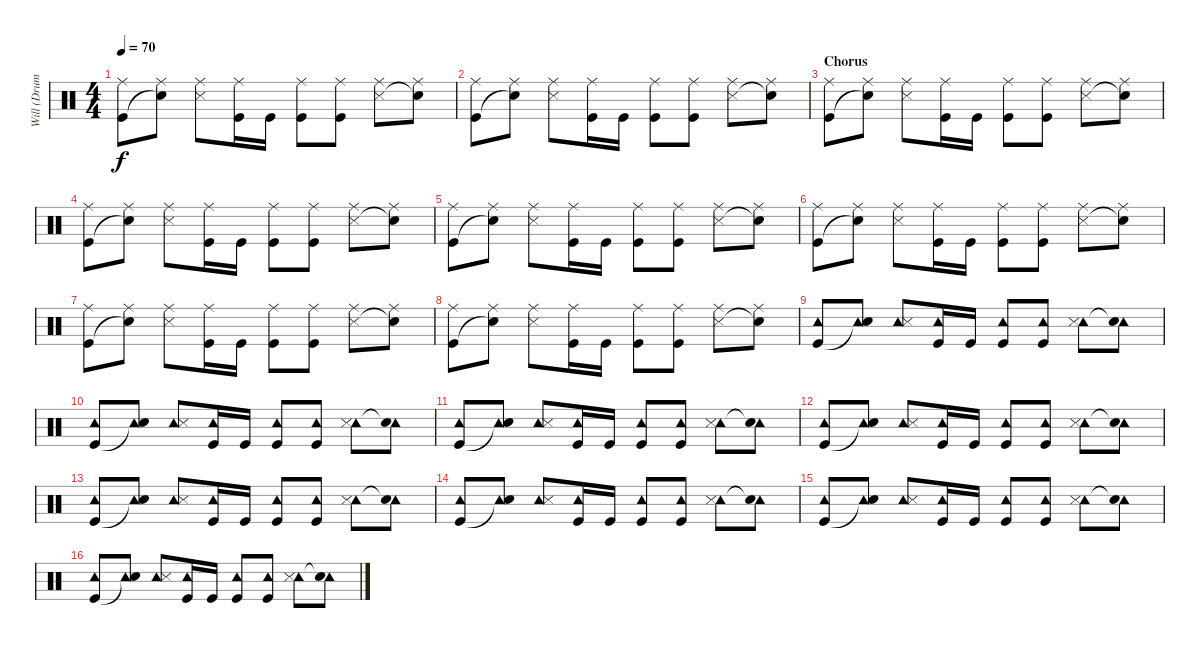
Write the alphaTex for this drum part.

\track ("Will (Drums)" "Will (Drum") {instrument percussion}
\staff {score}
\articulation defaults
\ts (4 4)
\tempo 70
\clef neutral
\ks c
("Ride (middle)" "Kick (hit)").8{dy f} ("Ride (middle)" "Snare (hit)"{t}).8 ("Ride (middle)" "Snare (side stick) 3").8 ("Ride (middle)" "Kick (hit)").16 "Kick (hit)".16 ("Ride (middle)" "Kick (hit)").8 ("Ride (middle)" "Kick (hit)").8 ("Ride (middle)" "Snare (side stick) 3").8 ("Ride (middle)" "Snare (hit)"{t}).8 |
("Ride (middle)" "Kick (hit)").8 ("Ride (middle)" "Snare (hit)"{t}).8 ("Ride (middle)" "Snare (side stick) 3").8 ("Ride (middle)" "Kick (hit)").16 "Kick (hit)".16 ("Ride (middle)" "Kick (hit)").8 ("Ride (middle)" "Kick (hit)").8 ("Ride (middle)" "Snare (side stick) 3").8 ("Ride (middle)" "Snare (hit)"{t}).8 |
\section ("" "Chorus")
("Ride (middle)" "Kick (hit)").8 ("Ride (middle)" "Snare (hit)"{t}).8 ("Ride (middle)" "Snare (side stick) 3").8 ("Ride (middle)" "Kick (hit)").16 "Kick (hit)".16 ("Ride (middle)" "Kick (hit)").8 ("Ride (middle)" "Kick (hit)").8 ("Ride (middle)" "Snare (side stick) 3").8 ("Ride (middle)" "Snare (hit)"{t}).8 |
("Ride (middle)" "Kick (hit)").8 ("Ride (middle)" "Snare (hit)"{t}).8 ("Ride (middle)" "Snare (side stick) 3").8 ("Ride (middle)" "Kick (hit)").16 "Kick (hit)".16 ("Ride (middle)" "Kick (hit)").8 ("Ride (middle)" "Kick (hit)").8 ("Ride (middle)" "Snare (side stick) 3").8 ("Ride (middle)" "Snare (hit)"{t}).8 |
("Ride (middle)" "Kick (hit)").8 ("Ride (middle)" "Snare (hit)"{t}).8 ("Ride (middle)" "Snare (side stick) 3").8 ("Ride (middle)" "Kick (hit)").16 "Kick (hit)".16 ("Ride (middle)" "Kick (hit)").8 ("Ride (middle)" "Kick (hit)").8 ("Ride (middle)" "Snare (side stick) 3").8 ("Ride (middle)" "Snare (hit)"{t}).8 |
("Ride (middle)" "Kick (hit)").8 ("Ride (middle)" "Snare (hit)"{t}).8 ("Ride (middle)" "Snare (side stick) 3").8 ("Ride (middle)" "Kick (hit)").16 "Kick (hit)".16 ("Ride (middle)" "Kick (hit)").8 ("Ride (middle)" "Kick (hit)").8 ("Ride (middle)" "Snare (side stick) 3").8 ("Ride (middle)" "Snare (hit)"{t}).8 |
("Ride (middle)" "Kick (hit)").8 ("Ride (middle)" "Snare (hit)"{t}).8 ("Ride (middle)" "Snare (side stick) 3").8 ("Ride (middle)" "Kick (hit)").16 "Kick (hit)".16 ("Ride (middle)" "Kick (hit)").8 ("Ride (middle)" "Kick (hit)").8 ("Ride (middle)" "Snare (side stick) 3").8 ("Ride (middle)" "Snare (hit)"{t}).8 |
("Ride (middle)" "Kick (hit)").8 ("Ride (middle)" "Snare (hit)"{t}).8 ("Ride (middle)" "Snare (side stick) 3").8 ("Ride (middle)" "Kick (hit)").16 "Kick (hit)".16 ("Ride (middle)" "Kick (hit)").8 ("Ride (middle)" "Kick (hit)").8 ("Ride (middle)" "Snare (side stick) 3").8 ("Ride (middle)" "Snare (hit)"{t}).8 |
("Tambourine (hit)" "Kick (hit)").8 ("Tambourine (hit)" "Snare (hit)"{t}).8 ("Tambourine (hit)" "Snare (side stick) 3").8 ("Tambourine (hit)" "Kick (hit)").16 "Kick (hit)".16 ("Tambourine (hit)" "Kick (hit)").8 ("Tambourine (hit)" "Kick (hit)").8 ("Tambourine (hit)" "Snare (side stick) 3").8 ("Tambourine (hit)" "Snare (hit)"{t}).8 |
("Tambourine (hit)" "Kick (hit)").8 ("Tambourine (hit)" "Snare (hit)"{t}).8 ("Tambourine (hit)" "Snare (side stick) 3").8 ("Tambourine (hit)" "Kick (hit)").16 "Kick (hit)".16 ("Tambourine (hit)" "Kick (hit)").8 ("Tambourine (hit)" "Kick (hit)").8 ("Tambourine (hit)" "Snare (side stick) 3").8 ("Tambourine (hit)" "Snare (hit)"{t}).8 |
("Tambourine (hit)" "Kick (hit)").8 ("Tambourine (hit)" "Snare (hit)"{t}).8 ("Tambourine (hit)" "Snare (side stick) 3").8 ("Tambourine (hit)" "Kick (hit)").16 "Kick (hit)".16 ("Tambourine (hit)" "Kick (hit)").8 ("Tambourine (hit)" "Kick (hit)").8 ("Tambourine (hit)" "Snare (side stick) 3").8 ("Tambourine (hit)" "Snare (hit)"{t}).8 |
("Tambourine (hit)" "Kick (hit)").8 ("Tambourine (hit)" "Snare (hit)"{t}).8 ("Tambourine (hit)" "Snare (side stick) 3").8 ("Tambourine (hit)" "Kick (hit)").16 "Kick (hit)".16 ("Tambourine (hit)" "Kick (hit)").8 ("Tambourine (hit)" "Kick (hit)").8 ("Tambourine (hit)" "Snare (side stick) 3").8 ("Tambourine (hit)" "Snare (hit)"{t}).8 |
("Tambourine (hit)" "Kick (hit)").8 ("Tambourine (hit)" "Snare (hit)"{t}).8 ("Tambourine (hit)" "Snare (side stick) 3").8 ("Tambourine (hit)" "Kick (hit)").16 "Kick (hit)".16 ("Tambourine (hit)" "Kick (hit)").8 ("Tambourine (hit)" "Kick (hit)").8 ("Tambourine (hit)" "Snare (side stick) 3").8 ("Tambourine (hit)" "Snare (hit)"{t}).8 |
("Tambourine (hit)" "Kick (hit)").8 ("Tambourine (hit)" "Snare (hit)"{t}).8 ("Tambourine (hit)" "Snare (side stick) 3").8 ("Tambourine (hit)" "Kick (hit)").16 "Kick (hit)".16 ("Tambourine (hit)" "Kick (hit)").8 ("Tambourine (hit)" "Kick (hit)").8 ("Tambourine (hit)" "Snare (side stick) 3").8 ("Tambourine (hit)" "Snare (hit)"{t}).8 |
("Tambourine (hit)" "Kick (hit)").8 ("Tambourine (hit)" "Snare (hit)"{t}).8 ("Tambourine (hit)" "Snare (side stick) 3").8 ("Tambourine (hit)" "Kick (hit)").16 "Kick (hit)".16 ("Tambourine (hit)" "Kick (hit)").8 ("Tambourine (hit)" "Kick (hit)").8 ("Tambourine (hit)" "Snare (side stick) 3").8 ("Tambourine (hit)" "Snare (hit)"{t}).8 |
("Tambourine (hit)" "Kick (hit)").8 ("Tambourine (hit)" "Snare (hit)"{t}).8 ("Tambourine (hit)" "Snare (side stick) 3").8 ("Tambourine (hit)" "Kick (hit)").16 "Kick (hit)".16 ("Tambourine (hit)" "Kick (hit)").8 ("Tambourine (hit)" "Kick (hit)").8 ("Tambourine (hit)" "Snare (side stick) 3").8 ("Tambourine (hit)" "Snare (hit)"{t}).8
